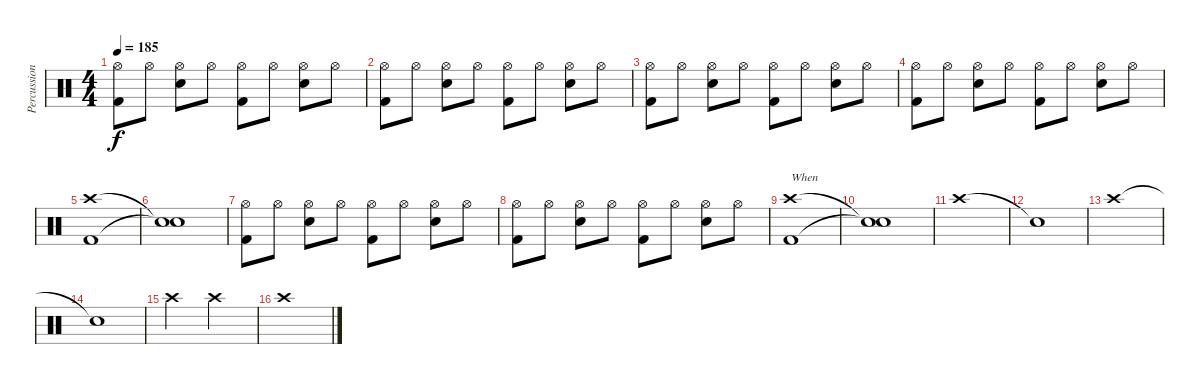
\track ("Percussion" "Percussion") {instrument percussion}
\staff {score}
\articulation defaults
\ts (4 4)
\tempo 185
\clef neutral
\ks c
("Hi-Hat (open)" "Kick (hit) 2").8{dy f} "Hi-Hat (open)".8 ("Hi-Hat (open)" "Snare (hit) 2").8 "Hi-Hat (open)".8 ("Hi-Hat (open)" "Kick (hit) 2").8 "Hi-Hat (open)".8 ("Hi-Hat (open)" "Snare (hit) 2").8 "Hi-Hat (open)".8 |
("Hi-Hat (open)" "Kick (hit) 2").8 "Hi-Hat (open)".8 ("Hi-Hat (open)" "Snare (hit) 2").8 "Hi-Hat (open)".8 ("Hi-Hat (open)" "Kick (hit) 2").8 "Hi-Hat (open)".8 ("Hi-Hat (open)" "Snare (hit) 2").8 "Hi-Hat (open)".8 |
("Hi-Hat (open)" "Kick (hit) 2").8 "Hi-Hat (open)".8 ("Hi-Hat (open)" "Snare (hit) 2").8 "Hi-Hat (open)".8 ("Hi-Hat (open)" "Kick (hit) 2").8 "Hi-Hat (open)".8 ("Hi-Hat (open)" "Snare (hit) 2").8 "Hi-Hat (open)".8 |
("Hi-Hat (open)" "Kick (hit) 2").8 "Hi-Hat (open)".8 ("Hi-Hat (open)" "Snare (hit) 2").8 "Hi-Hat (open)".8 ("Hi-Hat (open)" "Kick (hit) 2").8 "Hi-Hat (open)".8 ("Hi-Hat (open)" "Snare (hit) 2").8 "Hi-Hat (open)".8 |
("Crash high (hit)" "Kick (hit) 2").1 |
("Snare (hit)"{t} "Snare (hit)"{t}).1 |
("Hi-Hat (open)" "Kick (hit) 2").8 "Hi-Hat (open)".8 ("Hi-Hat (open)" "Snare (hit) 2").8 "Hi-Hat (open)".8 ("Hi-Hat (open)" "Kick (hit) 2").8 "Hi-Hat (open)".8 ("Hi-Hat (open)" "Snare (hit) 2").8 "Hi-Hat (open)".8 |
("Hi-Hat (open)" "Kick (hit) 2").8 "Hi-Hat (open)".8 ("Hi-Hat (open)" "Snare (hit) 2").8 "Hi-Hat (open)".8 ("Hi-Hat (open)" "Kick (hit) 2").8 "Hi-Hat (open)".8 ("Hi-Hat (open)" "Snare (hit) 2").8 "Hi-Hat (open)".8 |
("Crash high (hit)" "Kick (hit) 2").1{txt "When"} |
("Snare (hit)"{t} "Snare (hit)"{t}).1 |
"Crash high (hit)".1 |
"Snare (hit)"{t}.1 |
"Crash high (hit)".1 |
"Snare (hit)"{t}.1 |
"Crash high (hit)".2 "Crash high (hit)".2 |
"Crash high (hit)".1
